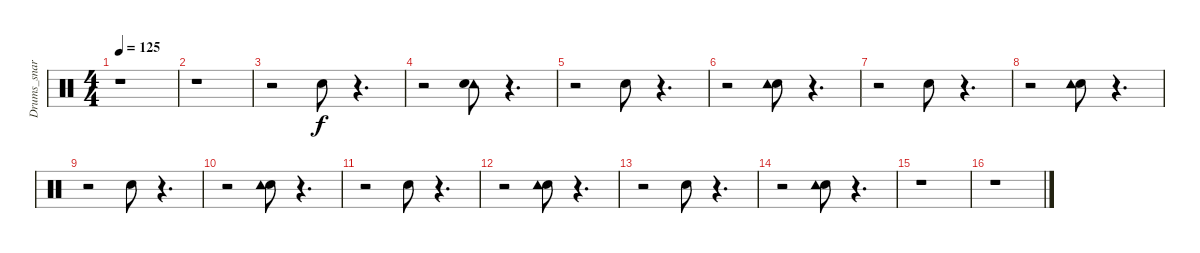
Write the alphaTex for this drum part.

\track ("Drums_snare&tom" "Drums_snar") {instrument percussion}
\staff {score}
\articulation defaults
\ts (4 4)
\tempo 125
\clef neutral
\ks c
r.1{dy f} |
r.1 |
r.2 "Electric Snare (hit)".8 r.4{d} |
r.2 ("Tambourine (hit)" "Electric Snare (hit)").8 r.4{d} |
r.2 "Electric Snare (hit)".8 r.4{d} |
r.2 ("Electric Snare (hit)" "Tambourine (hit)").8 r.4{d} |
r.2 "Electric Snare (hit)".8 r.4{d} |
r.2 ("Electric Snare (hit)" "Tambourine (hit)").8 r.4{d} |
r.2 "Electric Snare (hit)".8 r.4{d} |
r.2 ("Electric Snare (hit)" "Tambourine (hit)").8 r.4{d} |
r.2 "Electric Snare (hit)".8 r.4{d} |
r.2 ("Electric Snare (hit)" "Tambourine (hit)").8 r.4{d} |
r.2 "Electric Snare (hit)".8 r.4{d} |
r.2 ("Electric Snare (hit)" "Tambourine (hit)").8 r.4{d} |
r.1 |
r.1
